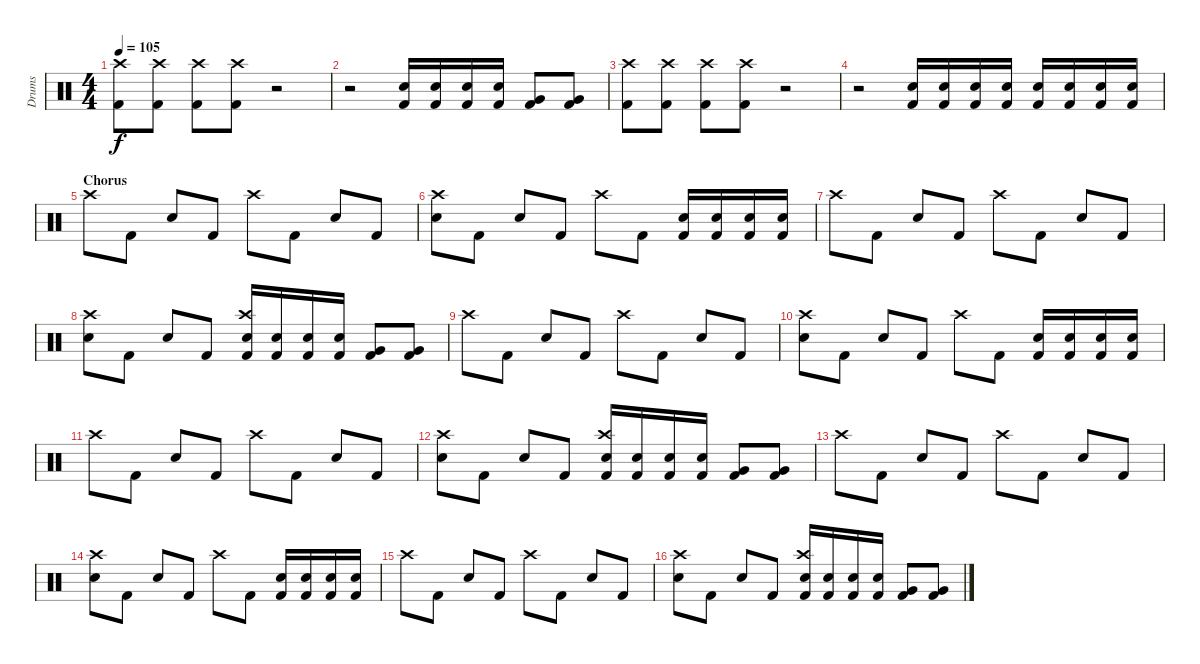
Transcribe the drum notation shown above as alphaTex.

\track ("Drums" "Drums") {instrument percussion}
\staff {score}
\articulation defaults
\ts (4 4)
\tempo 105
\clef neutral
\ks c
("Kick (hit) 2" "Crash high (hit)").8{dy f} ("Kick (hit) 2" "Crash high (hit)").8 ("Kick (hit) 2" "Crash high (hit)").8 ("Kick (hit) 2" "Crash high (hit)").8 r.2 |
r.2 ("Snare (hit) 2" "Kick (hit) 2").16 ("Snare (hit) 2" "Kick (hit) 2").16 ("Snare (hit) 2" "Kick (hit) 2").16 ("Snare (hit) 2" "Kick (hit) 2").16 ("Very Low Tom (hit)" "Kick (hit) 2").8 ("Very Low Tom (hit)" "Kick (hit) 2").8 |
("Kick (hit) 2" "Crash high (hit)").8 ("Kick (hit) 2" "Crash high (hit)").8 ("Kick (hit) 2" "Crash high (hit)").8 ("Kick (hit) 2" "Crash high (hit)").8 r.2 |
r.2 ("Snare (hit) 2" "Kick (hit) 2").16 ("Snare (hit) 2" "Kick (hit) 2").16 ("Snare (hit) 2" "Kick (hit) 2").16 ("Snare (hit) 2" "Kick (hit) 2").16 ("Snare (hit) 2" "Kick (hit) 2").16 ("Snare (hit) 2" "Kick (hit) 2").16 ("Snare (hit) 2" "Kick (hit) 2").16 ("Snare (hit) 2" "Kick (hit) 2").16 |
\section ("" "Chorus")
"Crash high (hit)".8 "Kick (hit) 2".8 "Snare (hit) 2".8 "Kick (hit) 2".8 "Crash high (hit)".8 "Kick (hit) 2".8 "Snare (hit) 2".8 "Kick (hit) 2".8 |
("Crash high (hit)" "Snare (hit) 2").8 "Kick (hit) 2".8 "Snare (hit) 2".8 "Kick (hit) 2".8 "Crash high (hit)".8 "Kick (hit) 2".8 ("Snare (hit) 2" "Kick (hit) 2").16 ("Snare (hit) 2" "Kick (hit) 2").16 ("Snare (hit) 2" "Kick (hit) 2").16 ("Snare (hit) 2" "Kick (hit) 2").16 |
"Crash high (hit)".8 "Kick (hit) 2".8 "Snare (hit) 2".8 "Kick (hit) 2".8 "Crash high (hit)".8 "Kick (hit) 2".8 "Snare (hit) 2".8 "Kick (hit) 2".8 |
("Crash high (hit)" "Snare (hit) 2").8 "Kick (hit) 2".8 "Snare (hit) 2".8 "Kick (hit) 2".8 ("Crash high (hit)" "Snare (hit) 2" "Kick (hit) 2").16 ("Snare (hit) 2" "Kick (hit) 2").16 ("Snare (hit) 2" "Kick (hit) 2").16 ("Snare (hit) 2" "Kick (hit) 2").16 ("Very Low Tom (hit)" "Kick (hit) 2").8 ("Very Low Tom (hit)" "Kick (hit) 2").8 |
"Crash high (hit)".8 "Kick (hit) 2".8 "Snare (hit) 2".8 "Kick (hit) 2".8 "Crash high (hit)".8 "Kick (hit) 2".8 "Snare (hit) 2".8 "Kick (hit) 2".8 |
("Crash high (hit)" "Snare (hit) 2").8 "Kick (hit) 2".8 "Snare (hit) 2".8 "Kick (hit) 2".8 "Crash high (hit)".8 "Kick (hit) 2".8 ("Snare (hit) 2" "Kick (hit) 2").16 ("Snare (hit) 2" "Kick (hit) 2").16 ("Snare (hit) 2" "Kick (hit) 2").16 ("Snare (hit) 2" "Kick (hit) 2").16 |
"Crash high (hit)".8 "Kick (hit) 2".8 "Snare (hit) 2".8 "Kick (hit) 2".8 "Crash high (hit)".8 "Kick (hit) 2".8 "Snare (hit) 2".8 "Kick (hit) 2".8 |
("Crash high (hit)" "Snare (hit) 2").8 "Kick (hit) 2".8 "Snare (hit) 2".8 "Kick (hit) 2".8 ("Crash high (hit)" "Snare (hit) 2" "Kick (hit) 2").16 ("Snare (hit) 2" "Kick (hit) 2").16 ("Snare (hit) 2" "Kick (hit) 2").16 ("Snare (hit) 2" "Kick (hit) 2").16 ("Very Low Tom (hit)" "Kick (hit) 2").8 ("Very Low Tom (hit)" "Kick (hit) 2").8 |
"Crash high (hit)".8 "Kick (hit) 2".8 "Snare (hit) 2".8 "Kick (hit) 2".8 "Crash high (hit)".8 "Kick (hit) 2".8 "Snare (hit) 2".8 "Kick (hit) 2".8 |
("Crash high (hit)" "Snare (hit) 2").8 "Kick (hit) 2".8 "Snare (hit) 2".8 "Kick (hit) 2".8 "Crash high (hit)".8 "Kick (hit) 2".8 ("Snare (hit) 2" "Kick (hit) 2").16 ("Snare (hit) 2" "Kick (hit) 2").16 ("Snare (hit) 2" "Kick (hit) 2").16 ("Snare (hit) 2" "Kick (hit) 2").16 |
"Crash high (hit)".8 "Kick (hit) 2".8 "Snare (hit) 2".8 "Kick (hit) 2".8 "Crash high (hit)".8 "Kick (hit) 2".8 "Snare (hit) 2".8 "Kick (hit) 2".8 |
("Crash high (hit)" "Snare (hit) 2").8 "Kick (hit) 2".8 "Snare (hit) 2".8 "Kick (hit) 2".8 ("Crash high (hit)" "Snare (hit) 2" "Kick (hit) 2").16 ("Snare (hit) 2" "Kick (hit) 2").16 ("Snare (hit) 2" "Kick (hit) 2").16 ("Snare (hit) 2" "Kick (hit) 2").16 ("Very Low Tom (hit)" "Kick (hit) 2").8 ("Very Low Tom (hit)" "Kick (hit) 2").8
